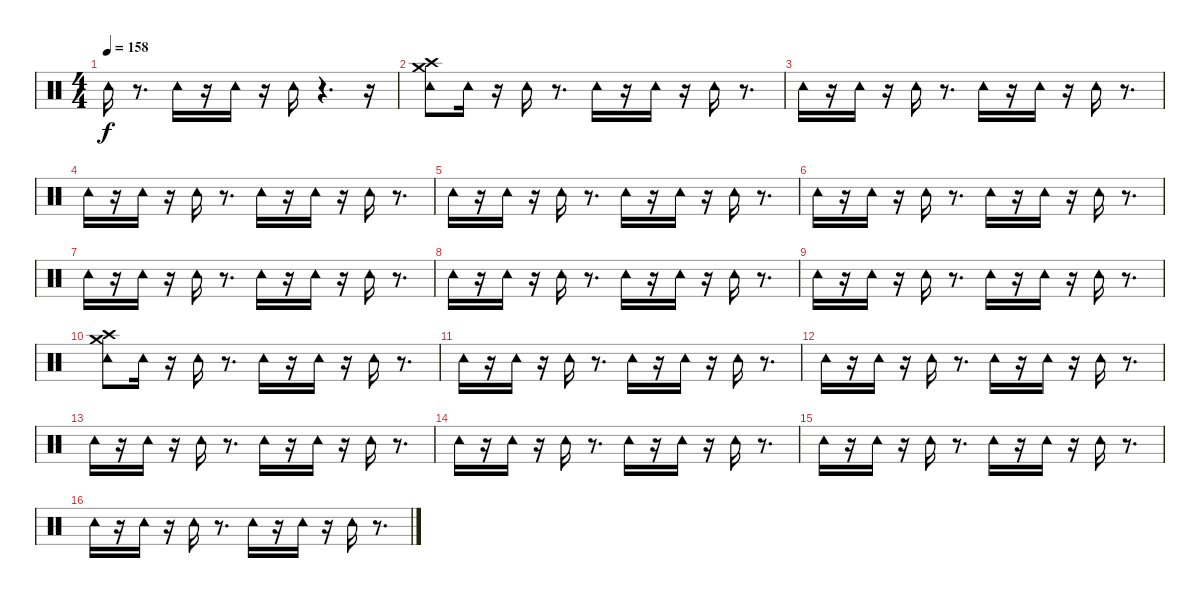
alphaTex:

\track "" {instrument percussion}
\staff {score}
\articulation defaults
\ts (4 4)
\tempo 158
\clef neutral
\ks c "Tambourine (hit)".16{dy f}
r.8{d} "Tambourine (hit)".16 r.16 "Tambourine (hit)".16 r.16 "Tambourine (hit)".16 r.4{d} r.16 |
("Crash medium (hit)" "Crash high (hit)" "Tambourine (hit)").8 "Tambourine (hit)".16 r.16 "Tambourine (hit)".16 r.8{d} "Tambourine (hit)".16 r.16 "Tambourine (hit)".16 r.16 "Tambourine (hit)".16 r.8{d} |
"Tambourine (hit)".16 r.16 "Tambourine (hit)".16 r.16 "Tambourine (hit)".16 r.8{d} "Tambourine (hit)".16 r.16 "Tambourine (hit)".16 r.16 "Tambourine (hit)".16 r.8{d} |
"Tambourine (hit)".16 r.16 "Tambourine (hit)".16 r.16 "Tambourine (hit)".16 r.8{d} "Tambourine (hit)".16 r.16 "Tambourine (hit)".16 r.16 "Tambourine (hit)".16 r.8{d} |
"Tambourine (hit)".16 r.16 "Tambourine (hit)".16 r.16 "Tambourine (hit)".16 r.8{d} "Tambourine (hit)".16 r.16 "Tambourine (hit)".16 r.16 "Tambourine (hit)".16 r.8{d} |
"Tambourine (hit)".16 r.16 "Tambourine (hit)".16 r.16 "Tambourine (hit)".16 r.8{d} "Tambourine (hit)".16 r.16 "Tambourine (hit)".16 r.16 "Tambourine (hit)".16 r.8{d} |
"Tambourine (hit)".16 r.16 "Tambourine (hit)".16 r.16 "Tambourine (hit)".16 r.8{d} "Tambourine (hit)".16 r.16 "Tambourine (hit)".16 r.16 "Tambourine (hit)".16 r.8{d} |
"Tambourine (hit)".16 r.16 "Tambourine (hit)".16 r.16 "Tambourine (hit)".16 r.8{d} "Tambourine (hit)".16 r.16 "Tambourine (hit)".16 r.16 "Tambourine (hit)".16 r.8{d} |
"Tambourine (hit)".16 r.16 "Tambourine (hit)".16 r.16 "Tambourine (hit)".16 r.8{d} "Tambourine (hit)".16 r.16 "Tambourine (hit)".16 r.16 "Tambourine (hit)".16 r.8{d} |
("Crash medium (hit)" "Crash high (hit)" "Tambourine (hit)").8 "Tambourine (hit)".16 r.16 "Tambourine (hit)".16 r.8{d} "Tambourine (hit)".16 r.16 "Tambourine (hit)".16 r.16 "Tambourine (hit)".16 r.8{d} |
"Tambourine (hit)".16 r.16 "Tambourine (hit)".16 r.16 "Tambourine (hit)".16 r.8{d} "Tambourine (hit)".16 r.16 "Tambourine (hit)".16 r.16 "Tambourine (hit)".16 r.8{d} |
"Tambourine (hit)".16 r.16 "Tambourine (hit)".16 r.16 "Tambourine (hit)".16 r.8{d} "Tambourine (hit)".16 r.16 "Tambourine (hit)".16 r.16 "Tambourine (hit)".16 r.8{d} |
"Tambourine (hit)".16 r.16 "Tambourine (hit)".16 r.16 "Tambourine (hit)".16 r.8{d} "Tambourine (hit)".16 r.16 "Tambourine (hit)".16 r.16 "Tambourine (hit)".16 r.8{d} |
"Tambourine (hit)".16 r.16 "Tambourine (hit)".16 r.16 "Tambourine (hit)".16 r.8{d} "Tambourine (hit)".16 r.16 "Tambourine (hit)".16 r.16 "Tambourine (hit)".16 r.8{d} |
"Tambourine (hit)".16 r.16 "Tambourine (hit)".16 r.16 "Tambourine (hit)".16 r.8{d} "Tambourine (hit)".16 r.16 "Tambourine (hit)".16 r.16 "Tambourine (hit)".16 r.8{d} |
"Tambourine (hit)".16 r.16 "Tambourine (hit)".16 r.16 "Tambourine (hit)".16 r.8{d} "Tambourine (hit)".16 r.16 "Tambourine (hit)".16 r.16 "Tambourine (hit)".16 r.8{d}
